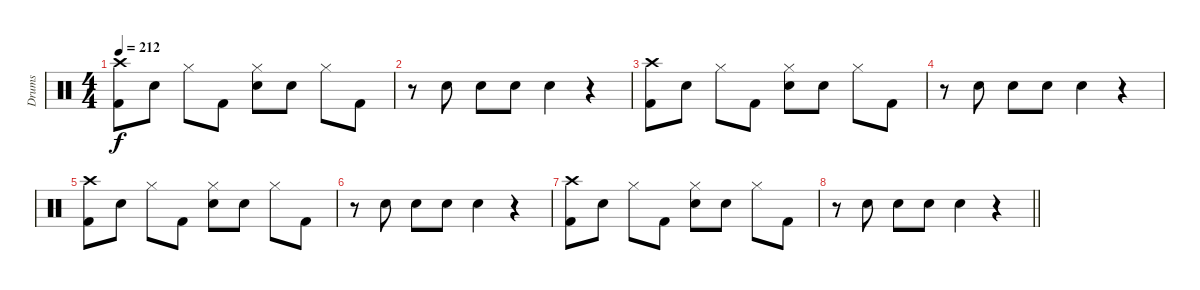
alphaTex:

\track ("Drums" "Drums") {instrument percussion}
\staff {score}
\articulation defaults
\ts (4 4)
\tempo 212
\clef neutral
\ks c
("Crash high (hit)" "Kick (hit) 2").8{dy f} "Snare (hit) 2".8 "Hi-Hat (closed)".8 "Kick (hit) 2".8 ("Hi-Hat (closed)" "Snare (hit) 2").8 "Snare (hit) 2".8 "Hi-Hat (closed)".8 "Kick (hit) 2".8 |
r.8 "Snare (hit) 2".8 "Snare (hit) 2".8 "Snare (hit) 2".8 "Snare (hit) 2".4 r.4 |
("Crash high (hit)" "Kick (hit) 2").8 "Snare (hit) 2".8 "Hi-Hat (closed)".8 "Kick (hit) 2".8 ("Hi-Hat (closed)" "Snare (hit) 2").8 "Snare (hit) 2".8 "Hi-Hat (closed)".8 "Kick (hit) 2".8 |
r.8 "Snare (hit) 2".8 "Snare (hit) 2".8 "Snare (hit) 2".8 "Snare (hit) 2".4 r.4 |
("Crash high (hit)" "Kick (hit) 2").8 "Snare (hit) 2".8 "Hi-Hat (closed)".8 "Kick (hit) 2".8 ("Hi-Hat (closed)" "Snare (hit) 2").8 "Snare (hit) 2".8 "Hi-Hat (closed)".8 "Kick (hit) 2".8 |
r.8 "Snare (hit) 2".8 "Snare (hit) 2".8 "Snare (hit) 2".8 "Snare (hit) 2".4 r.4 |
("Crash high (hit)" "Kick (hit) 2").8 "Snare (hit) 2".8 "Hi-Hat (closed)".8 "Kick (hit) 2".8 ("Hi-Hat (closed)" "Snare (hit) 2").8 "Snare (hit) 2".8 "Hi-Hat (closed)".8 "Kick (hit) 2".8 |
\barLineRight lightlight
r.8 "Snare (hit) 2".8 "Snare (hit) 2".8 "Snare (hit) 2".8 "Snare (hit) 2".4 r.4
